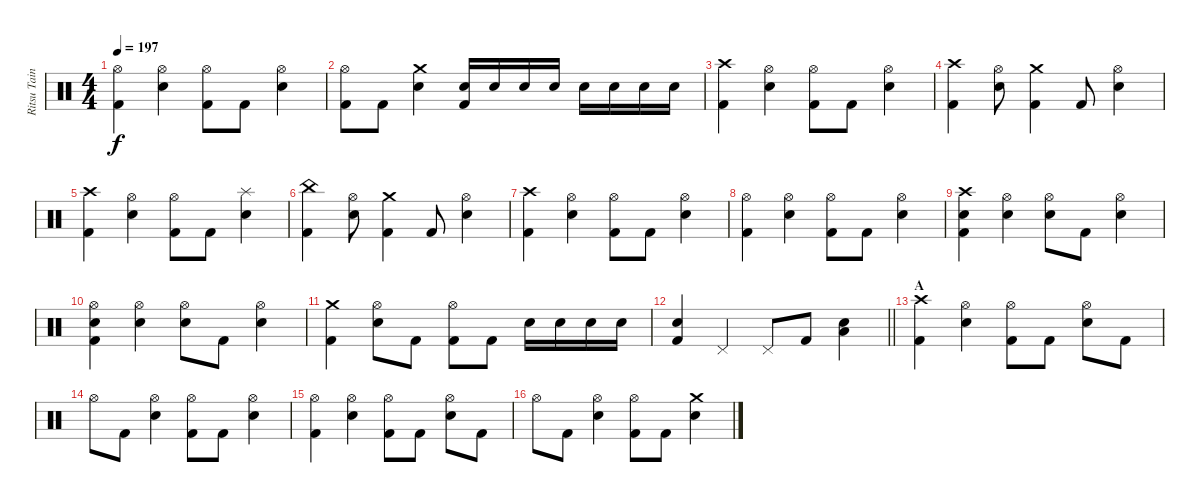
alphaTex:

\track ("Ritsu Tainaka" "Ritsu Tain") {instrument percussion}
\staff {score}
\articulation defaults
\ts (4 4)
\tempo 197
\clef neutral
\ks c
("Hi-Hat (open)" "Kick (hit) 2").4{dy f} ("Hi-Hat (open)" "Electric Snare (hit)").4 ("Hi-Hat (open)" "Kick (hit) 2").8 "Kick (hit) 2".8 ("Hi-Hat (open)" "Electric Snare (hit)").4 |
("Hi-Hat (open)" "Kick (hit) 2").8 "Kick (hit) 2".8 ("Crash medium (hit)" "Electric Snare (hit)").4 ("Electric Snare (hit)" "Kick (hit) 2").16 "Electric Snare (hit)".16 "Electric Snare (hit)".16 "Electric Snare (hit)".16 "Electric Snare (hit)".16 "Electric Snare (hit)".16 "Electric Snare (hit)".16 "Electric Snare (hit)".16 |
("Crash high (hit)" "Kick (hit) 2").4 ("Hi-Hat (open)" "Electric Snare (hit)").4 ("Hi-Hat (open)" "Kick (hit) 2").8 "Kick (hit) 2".8 ("Hi-Hat (open)" "Electric Snare (hit)").4 |
("Crash high (hit)" "Kick (hit) 2").4 ("Hi-Hat (open)" "Electric Snare (hit)").8 ("Crash medium (hit)" "Kick (hit) 2").4 "Kick (hit) 2".8 ("Hi-Hat (open)" "Electric Snare (hit)").4 |
("Crash high (hit)" "Kick (hit) 2").4 ("Hi-Hat (open)" "Electric Snare (hit)").4 ("Hi-Hat (open)" "Kick (hit) 2").8 "Kick (hit) 2".8 ("Splash (hit)" "Electric Snare (hit)").4 |
("China (hit)" "Kick (hit) 2").4 ("Hi-Hat (open)" "Electric Snare (hit)").8 ("Crash medium (hit)" "Kick (hit) 2").4 "Kick (hit) 2".8 ("Hi-Hat (open)" "Electric Snare (hit)").4 |
("Crash high (hit)" "Kick (hit) 2").4 ("Hi-Hat (open)" "Electric Snare (hit)").4 ("Hi-Hat (open)" "Kick (hit) 2").8 "Kick (hit) 2".8 ("Hi-Hat (open)" "Electric Snare (hit)").4 |
("Hi-Hat (open)" "Kick (hit) 2").4 ("Hi-Hat (open)" "Electric Snare (hit)").4 ("Hi-Hat (open)" "Kick (hit) 2").8 "Kick (hit) 2".8 ("Hi-Hat (open)" "Electric Snare (hit)").4 |
("Crash high (hit)" "Electric Snare (hit)" "Kick (hit) 2").4 ("Hi-Hat (open)" "Electric Snare (hit)").4 ("Hi-Hat (open)" "Electric Snare (hit)").8 "Kick (hit) 2".8 ("Hi-Hat (open)" "Electric Snare (hit)").4 |
("Hi-Hat (open)" "Electric Snare (hit)" "Kick (hit) 2").4 ("Hi-Hat (open)" "Electric Snare (hit)").4 ("Hi-Hat (open)" "Electric Snare (hit)").8 "Kick (hit) 2".8 ("Hi-Hat (open)" "Electric Snare (hit)").4 |
("Crash medium (hit)" "Kick (hit) 2").4 ("Hi-Hat (open)" "Electric Snare (hit)").8 "Kick (hit) 2".8 ("Hi-Hat (open)" "Kick (hit) 2").8 "Kick (hit) 2".8 "Electric Snare (hit)".16 "Electric Snare (hit)".16 "Electric Snare (hit)".16 "Electric Snare (hit)".16 |
\barLineRight lightlight
("Electric Snare (hit)" "Kick (hit) 2").4 "Pedal Hi-Hat (hit)".4 "Pedal Hi-Hat (hit)".8 "Kick (hit) 2".8 ("Electric Snare (hit)" "Low Floor Tom (hit)").4 |
\section ("" "A")
("Crash high (hit)" "Kick (hit) 2").4 ("Hi-Hat (open)" "Electric Snare (hit)").4 ("Hi-Hat (open)" "Kick (hit) 2").8 "Kick (hit) 2".8 ("Hi-Hat (open)" "Electric Snare (hit)").8 "Kick (hit) 2".8 |
"Hi-Hat (open)".8 "Kick (hit) 2".8 ("Hi-Hat (open)" "Electric Snare (hit)").4 ("Hi-Hat (open)" "Kick (hit) 2").8 "Kick (hit) 2".8 ("Hi-Hat (open)" "Electric Snare (hit)").4 |
("Hi-Hat (open)" "Kick (hit) 2").4 ("Hi-Hat (open)" "Electric Snare (hit)").4 ("Hi-Hat (open)" "Kick (hit) 2").8 "Kick (hit) 2".8 ("Hi-Hat (open)" "Electric Snare (hit)").8 "Kick (hit) 2".8 |
"Hi-Hat (open)".8 "Kick (hit) 2".8 ("Hi-Hat (open)" "Electric Snare (hit)").4 ("Hi-Hat (open)" "Kick (hit) 2").8 "Kick (hit) 2".8 ("Crash medium (hit)" "Electric Snare (hit)").4
